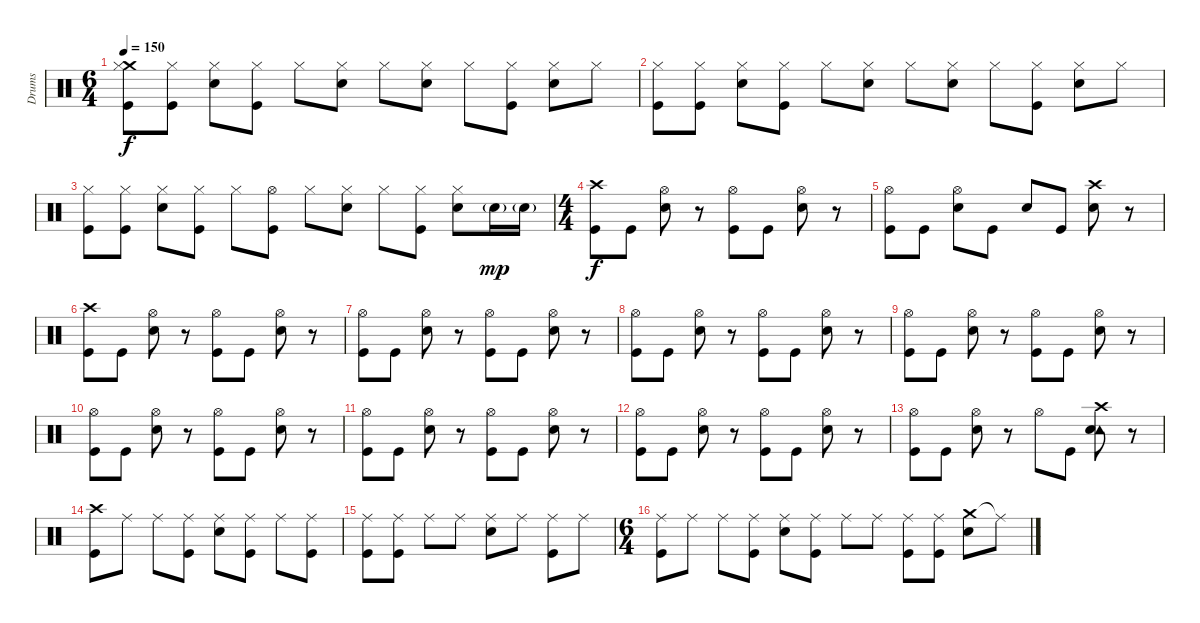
\track ("Drums" "Drums") {instrument percussion}
\staff {score}
\articulation defaults
\ts (6 4)
\tempo 150
\clef neutral
\ks c
("Crash medium (hit)" "Hi-Hat (closed)" "Kick (hit)").8{dy f} ("Hi-Hat (closed)" "Kick (hit)").8 ("Hi-Hat (closed)" "Electric Snare (hit)").8 ("Hi-Hat (closed)" "Kick (hit)").8 "Hi-Hat (closed)".8 ("Hi-Hat (closed)" "Electric Snare (hit)").8 "Hi-Hat (closed)".8 ("Hi-Hat (closed)" "Electric Snare (hit)").8 "Hi-Hat (closed)".8 ("Hi-Hat (closed)" "Kick (hit)").8 ("Hi-Hat (closed)" "Electric Snare (hit)").8 "Hi-Hat (closed)".8 |
("Hi-Hat (closed)" "Kick (hit)").8 ("Hi-Hat (closed)" "Kick (hit)").8 ("Hi-Hat (closed)" "Electric Snare (hit)").8 ("Hi-Hat (closed)" "Kick (hit)").8 "Hi-Hat (closed)".8 ("Hi-Hat (closed)" "Electric Snare (hit)").8 "Hi-Hat (closed)".8 ("Hi-Hat (closed)" "Electric Snare (hit)").8 "Hi-Hat (closed)".8 ("Hi-Hat (closed)" "Kick (hit)").8 ("Hi-Hat (closed)" "Electric Snare (hit)").8 "Hi-Hat (closed)".8 |
("Hi-Hat (closed)" "Kick (hit)").8 ("Hi-Hat (closed)" "Kick (hit)").8 ("Hi-Hat (closed)" "Electric Snare (hit)").8 ("Hi-Hat (closed)" "Kick (hit)").8 "Hi-Hat (closed)".8 ("Hi-Hat (open)" "Kick (hit)").8 "Hi-Hat (closed)".8 ("Hi-Hat (closed)" "Electric Snare (hit)").8 "Hi-Hat (closed)".8 ("Hi-Hat (closed)" "Kick (hit)").8 ("Hi-Hat (closed)" "Electric Snare (hit)").8 "Electric Snare (hit)"{g}.16{dy mp} "Electric Snare (hit)"{g}.16 |
\ts (4 4)
("Crash high (hit)" "Kick (hit)").8{dy f} "Kick (hit)".8 ("Hi-Hat (open)" "Electric Snare (hit)").8 r.8 ("Hi-Hat (open)" "Kick (hit)").8 "Kick (hit)".8 ("Hi-Hat (open)" "Electric Snare (hit)").8 r.8 |
("Hi-Hat (open)" "Kick (hit)").8 "Kick (hit)".8 ("Hi-Hat (open)" "Electric Snare (hit)").8 "Kick (hit)".8 "Electric Snare (hit)".8 "Kick (hit)".8 ("Crash high (hit)" "Electric Snare (hit)").8 r.8 |
("Crash high (hit)" "Kick (hit)").8 "Kick (hit)".8 ("Hi-Hat (open)" "Electric Snare (hit)").8 r.8 ("Hi-Hat (open)" "Kick (hit)").8 "Kick (hit)".8 ("Hi-Hat (open)" "Electric Snare (hit)").8 r.8 |
("Hi-Hat (open)" "Kick (hit)").8 "Kick (hit)".8 ("Hi-Hat (open)" "Electric Snare (hit)").8 r.8 ("Hi-Hat (open)" "Kick (hit)").8 "Kick (hit)".8 ("Hi-Hat (open)" "Electric Snare (hit)").8 r.8 |
("Hi-Hat (open)" "Kick (hit)").8 "Kick (hit)".8 ("Hi-Hat (open)" "Electric Snare (hit)").8 r.8 ("Hi-Hat (open)" "Kick (hit)").8 "Kick (hit)".8 ("Hi-Hat (open)" "Electric Snare (hit)").8 r.8 |
("Hi-Hat (open)" "Kick (hit)").8 "Kick (hit)".8 ("Hi-Hat (open)" "Electric Snare (hit)").8 r.8 ("Hi-Hat (open)" "Kick (hit)").8 "Kick (hit)".8 ("Hi-Hat (open)" "Electric Snare (hit)").8 r.8 |
("Hi-Hat (open)" "Kick (hit)").8 "Kick (hit)".8 ("Hi-Hat (open)" "Electric Snare (hit)").8 r.8 ("Hi-Hat (open)" "Kick (hit)").8 "Kick (hit)".8 ("Hi-Hat (open)" "Electric Snare (hit)").8 r.8 |
("Hi-Hat (open)" "Kick (hit)").8 "Kick (hit)".8 ("Hi-Hat (open)" "Electric Snare (hit)").8 r.8 ("Hi-Hat (open)" "Kick (hit)").8 "Kick (hit)".8 ("Hi-Hat (open)" "Electric Snare (hit)").8 r.8 |
("Hi-Hat (open)" "Kick (hit)").8 "Kick (hit)".8 ("Hi-Hat (open)" "Electric Snare (hit)").8 r.8 ("Hi-Hat (open)" "Kick (hit)").8 "Kick (hit)".8 ("Hi-Hat (open)" "Electric Snare (hit)").8 r.8 |
("Hi-Hat (open)" "Kick (hit)").8 "Kick (hit)".8 ("Hi-Hat (open)" "Electric Snare (hit)").8 r.8 "Hi-Hat (open)".8 "Kick (hit)".8 ("Crash high (hit)" "Tambourine (hit)" "Electric Snare (hit)").8 r.8 |
("Crash high (hit)" "Kick (hit)").8 "Ride (middle)".8 "Ride (middle)".8 ("Ride (middle)" "Kick (hit)").8 ("Ride (middle)" "Electric Snare (hit)").8 ("Ride (middle)" "Kick (hit)").8 "Ride (middle)".8 ("Ride (middle)" "Kick (hit)").8 |
("Ride (middle)" "Kick (hit)").8 ("Ride (middle)" "Kick (hit)").8 "Ride (middle)".8 "Ride (middle)".8 ("Ride (middle)" "Electric Snare (hit)").8 "Ride (middle)".8 ("Ride (middle)" "Kick (hit)").8 "Ride (middle)".8 |
\ts (6 4)
("Ride (middle)" "Kick (hit)").8 "Ride (middle)".8 "Ride (middle)".8 ("Ride (middle)" "Kick (hit)").8 ("Ride (middle)" "Electric Snare (hit)").8 ("Ride (middle)" "Kick (hit)").8 "Ride (middle)".8 "Ride (middle)".8 ("Ride (middle)" "Kick (hit)").8 ("Ride (middle)" "Kick (hit)").8 ("Crash medium (hit)" "Electric Snare (hit)").8 "Ride (middle)"{t}.8
